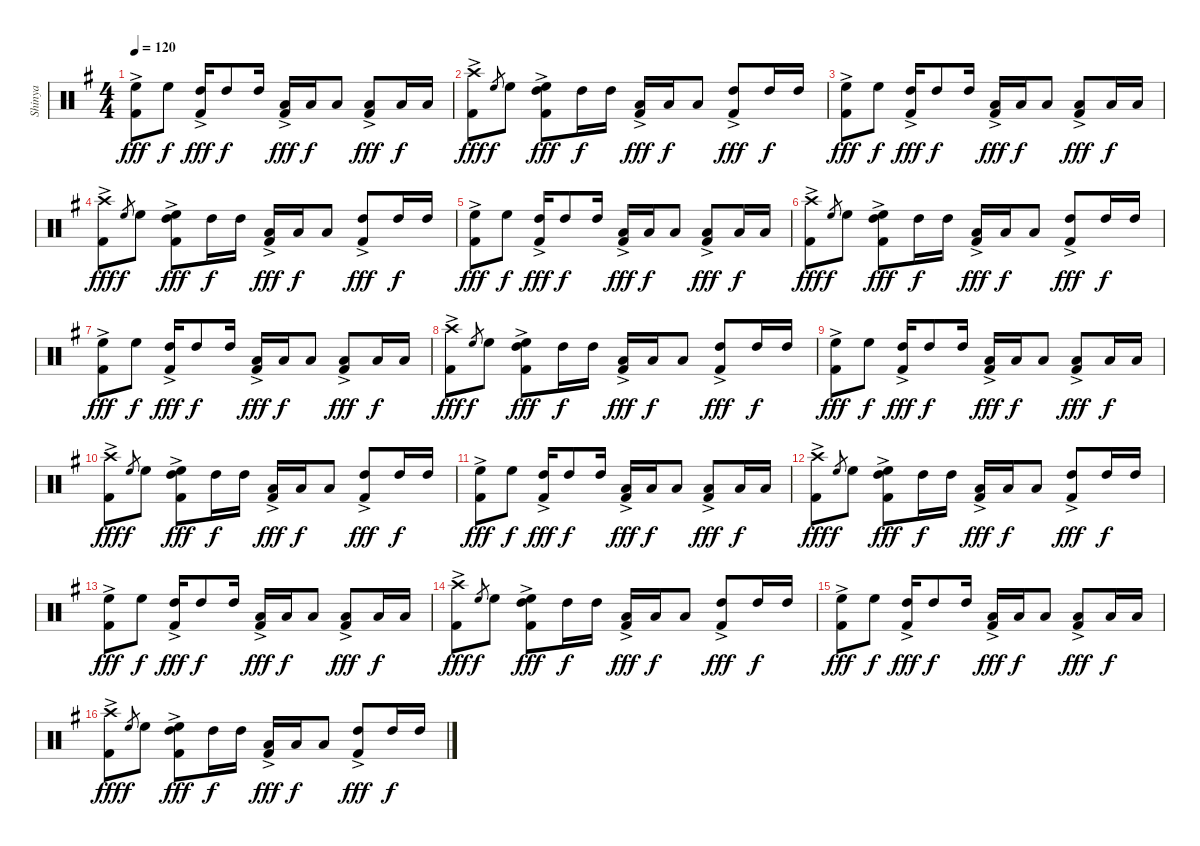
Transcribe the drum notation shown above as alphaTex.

\track ("Shinya" "Shinya") {instrument percussion}
\staff {score}
\articulation defaults
\ts (4 4)
\tempo 120
\clef neutral
\ks g
("High Floor Tom (hit)" "Kick (hit) 2"{ac}).8{dy fff} "High Floor Tom (hit)".8{dy f} ("High Tom (hit)" "Kick (hit) 2"{ac}).16{dy fff} "High Tom (hit)".8{dy f} "High Tom (hit)".16 ("Low Tom (hit)" "Kick (hit) 2"{ac}).16{dy fff} "Low Tom (hit)".16{dy f} "Low Tom (hit)".8 ("Low Floor Tom (hit)" "Kick (hit) 2"{ac}).8{dy fff} "Low Floor Tom (hit)".16{dy f} "Low Floor Tom (hit)".16 |
("Crash high (hit)"{ac} "Kick (hit) 2"{ac}).8{dy fff} "High Floor Tom (hit)".8{gr dy f} "High Floor Tom (hit)".8 ("High Floor Tom (hit)" "High Tom (hit)" "Kick (hit) 2"{ac}).8{dy fff} "High Tom (hit)".16{dy f} "High Tom (hit)".16 ("Low Tom (hit)" "Kick (hit) 2"{ac}).16{dy fff} "Low Tom (hit)".16{dy f} "Low Tom (hit)".8 ("High Tom (hit)" "Kick (hit) 2"{ac}).8{dy fff} "High Tom (hit)".16{dy f} "High Tom (hit)".16 |
("High Floor Tom (hit)" "Kick (hit) 2"{ac}).8{dy fff} "High Floor Tom (hit)".8{dy f} ("High Tom (hit)" "Kick (hit) 2"{ac}).16{dy fff} "High Tom (hit)".8{dy f} "High Tom (hit)".16 ("Low Tom (hit)" "Kick (hit) 2"{ac}).16{dy fff} "Low Tom (hit)".16{dy f} "Low Tom (hit)".8 ("Low Floor Tom (hit)" "Kick (hit) 2"{ac}).8{dy fff} "Low Floor Tom (hit)".16{dy f} "Low Floor Tom (hit)".16 |
("Crash high (hit)"{ac} "Kick (hit) 2"{ac}).8{dy fff} "High Floor Tom (hit)".8{gr dy f} "High Floor Tom (hit)".8 ("High Floor Tom (hit)" "High Tom (hit)" "Kick (hit) 2"{ac}).8{dy fff} "High Tom (hit)".16{dy f} "High Tom (hit)".16 ("Low Tom (hit)" "Kick (hit) 2"{ac}).16{dy fff} "Low Tom (hit)".16{dy f} "Low Tom (hit)".8 ("High Tom (hit)" "Kick (hit) 2"{ac}).8{dy fff} "High Tom (hit)".16{dy f} "High Tom (hit)".16 |
("High Floor Tom (hit)" "Kick (hit) 2"{ac}).8{dy fff} "High Floor Tom (hit)".8{dy f} ("High Tom (hit)" "Kick (hit) 2"{ac}).16{dy fff} "High Tom (hit)".8{dy f} "High Tom (hit)".16 ("Low Tom (hit)" "Kick (hit) 2"{ac}).16{dy fff} "Low Tom (hit)".16{dy f} "Low Tom (hit)".8 ("Low Floor Tom (hit)" "Kick (hit) 2"{ac}).8{dy fff} "Low Floor Tom (hit)".16{dy f} "Low Floor Tom (hit)".16 |
("Crash high (hit)"{ac} "Kick (hit) 2"{ac}).8{dy fff} "High Floor Tom (hit)".8{gr dy f} "High Floor Tom (hit)".8 ("High Floor Tom (hit)" "High Tom (hit)" "Kick (hit) 2"{ac}).8{dy fff} "High Tom (hit)".16{dy f} "High Tom (hit)".16 ("Low Tom (hit)" "Kick (hit) 2"{ac}).16{dy fff} "Low Tom (hit)".16{dy f} "Low Tom (hit)".8 ("High Tom (hit)" "Kick (hit) 2"{ac}).8{dy fff} "High Tom (hit)".16{dy f} "High Tom (hit)".16 |
("High Floor Tom (hit)" "Kick (hit) 2"{ac}).8{dy fff} "High Floor Tom (hit)".8{dy f} ("High Tom (hit)" "Kick (hit) 2"{ac}).16{dy fff} "High Tom (hit)".8{dy f} "High Tom (hit)".16 ("Low Tom (hit)" "Kick (hit) 2"{ac}).16{dy fff} "Low Tom (hit)".16{dy f} "Low Tom (hit)".8 ("Low Floor Tom (hit)" "Kick (hit) 2"{ac}).8{dy fff} "Low Floor Tom (hit)".16{dy f} "Low Floor Tom (hit)".16 |
("Crash high (hit)"{ac} "Kick (hit) 2"{ac}).8{dy fff} "High Floor Tom (hit)".8{gr dy f} "High Floor Tom (hit)".8 ("High Floor Tom (hit)" "High Tom (hit)" "Kick (hit) 2"{ac}).8{dy fff} "High Tom (hit)".16{dy f} "High Tom (hit)".16 ("Low Tom (hit)" "Kick (hit) 2"{ac}).16{dy fff} "Low Tom (hit)".16{dy f} "Low Tom (hit)".8 ("High Tom (hit)" "Kick (hit) 2"{ac}).8{dy fff} "High Tom (hit)".16{dy f} "High Tom (hit)".16 |
("High Floor Tom (hit)" "Kick (hit) 2"{ac}).8{dy fff} "High Floor Tom (hit)".8{dy f} ("High Tom (hit)" "Kick (hit) 2"{ac}).16{dy fff} "High Tom (hit)".8{dy f} "High Tom (hit)".16 ("Low Tom (hit)" "Kick (hit) 2"{ac}).16{dy fff} "Low Tom (hit)".16{dy f} "Low Tom (hit)".8 ("Low Floor Tom (hit)" "Kick (hit) 2"{ac}).8{dy fff} "Low Floor Tom (hit)".16{dy f} "Low Floor Tom (hit)".16 |
("Crash high (hit)"{ac} "Kick (hit) 2"{ac}).8{dy fff} "High Floor Tom (hit)".8{gr dy f} "High Floor Tom (hit)".8 ("High Floor Tom (hit)" "High Tom (hit)" "Kick (hit) 2"{ac}).8{dy fff} "High Tom (hit)".16{dy f} "High Tom (hit)".16 ("Low Tom (hit)" "Kick (hit) 2"{ac}).16{dy fff} "Low Tom (hit)".16{dy f} "Low Tom (hit)".8 ("High Tom (hit)" "Kick (hit) 2"{ac}).8{dy fff} "High Tom (hit)".16{dy f} "High Tom (hit)".16 |
("High Floor Tom (hit)" "Kick (hit) 2"{ac}).8{dy fff} "High Floor Tom (hit)".8{dy f} ("High Tom (hit)" "Kick (hit) 2"{ac}).16{dy fff} "High Tom (hit)".8{dy f} "High Tom (hit)".16 ("Low Tom (hit)" "Kick (hit) 2"{ac}).16{dy fff} "Low Tom (hit)".16{dy f} "Low Tom (hit)".8 ("Low Floor Tom (hit)" "Kick (hit) 2"{ac}).8{dy fff} "Low Floor Tom (hit)".16{dy f} "Low Floor Tom (hit)".16 |
("Crash high (hit)"{ac} "Kick (hit) 2"{ac}).8{dy fff} "High Floor Tom (hit)".8{gr dy f} "High Floor Tom (hit)".8 ("High Floor Tom (hit)" "High Tom (hit)" "Kick (hit) 2"{ac}).8{dy fff} "High Tom (hit)".16{dy f} "High Tom (hit)".16 ("Low Tom (hit)" "Kick (hit) 2"{ac}).16{dy fff} "Low Tom (hit)".16{dy f} "Low Tom (hit)".8 ("High Tom (hit)" "Kick (hit) 2"{ac}).8{dy fff} "High Tom (hit)".16{dy f} "High Tom (hit)".16 |
("High Floor Tom (hit)" "Kick (hit) 2"{ac}).8{dy fff} "High Floor Tom (hit)".8{dy f} ("High Tom (hit)" "Kick (hit) 2"{ac}).16{dy fff} "High Tom (hit)".8{dy f} "High Tom (hit)".16 ("Low Tom (hit)" "Kick (hit) 2"{ac}).16{dy fff} "Low Tom (hit)".16{dy f} "Low Tom (hit)".8 ("Low Floor Tom (hit)" "Kick (hit) 2"{ac}).8{dy fff} "Low Floor Tom (hit)".16{dy f} "Low Floor Tom (hit)".16 |
("Crash high (hit)"{ac} "Kick (hit) 2"{ac}).8{dy fff} "High Floor Tom (hit)".8{gr dy f} "High Floor Tom (hit)".8 ("High Floor Tom (hit)" "High Tom (hit)" "Kick (hit) 2"{ac}).8{dy fff} "High Tom (hit)".16{dy f} "High Tom (hit)".16 ("Low Tom (hit)" "Kick (hit) 2"{ac}).16{dy fff} "Low Tom (hit)".16{dy f} "Low Tom (hit)".8 ("High Tom (hit)" "Kick (hit) 2"{ac}).8{dy fff} "High Tom (hit)".16{dy f} "High Tom (hit)".16 |
("High Floor Tom (hit)" "Kick (hit) 2"{ac}).8{dy fff} "High Floor Tom (hit)".8{dy f} ("High Tom (hit)" "Kick (hit) 2"{ac}).16{dy fff} "High Tom (hit)".8{dy f} "High Tom (hit)".16 ("Low Tom (hit)" "Kick (hit) 2"{ac}).16{dy fff} "Low Tom (hit)".16{dy f} "Low Tom (hit)".8 ("Low Floor Tom (hit)" "Kick (hit) 2"{ac}).8{dy fff} "Low Floor Tom (hit)".16{dy f} "Low Floor Tom (hit)".16 |
("Crash high (hit)"{ac} "Kick (hit) 2"{ac}).8{dy fff} "High Floor Tom (hit)".8{gr dy f} "High Floor Tom (hit)".8 ("High Floor Tom (hit)" "High Tom (hit)" "Kick (hit) 2"{ac}).8{dy fff} "High Tom (hit)".16{dy f} "High Tom (hit)".16 ("Low Tom (hit)" "Kick (hit) 2"{ac}).16{dy fff} "Low Tom (hit)".16{dy f} "Low Tom (hit)".8 ("High Tom (hit)" "Kick (hit) 2"{ac}).8{dy fff} "High Tom (hit)".16{dy f} "High Tom (hit)".16
